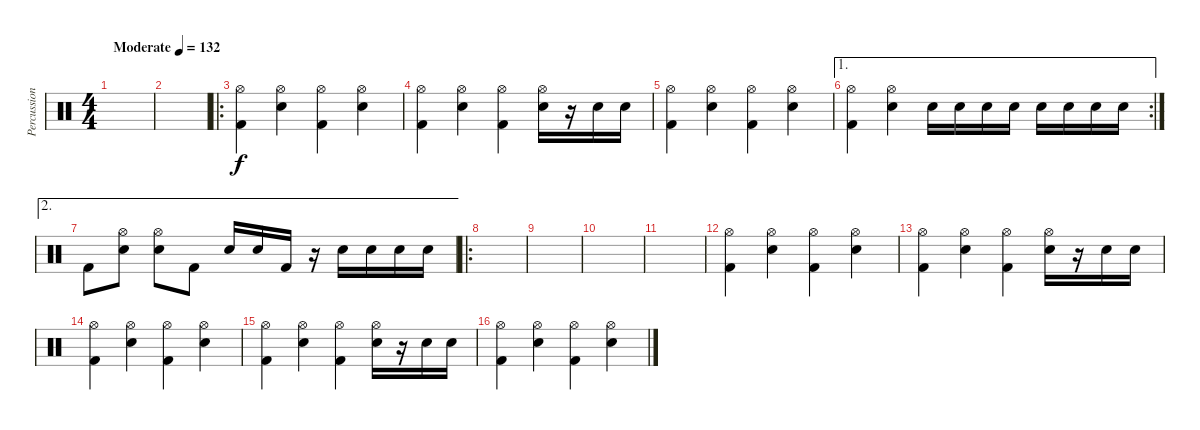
\track ("Percussion" "Percussion") {instrument percussion}
\staff {score}
\articulation defaults
\ts (4 4)
\tempo (132 "Moderate")
\clef neutral
\ks c
|
|
\ro
("Kick (hit) 2" "Hi-Hat (open)").4 ("Hi-Hat (open)" "Snare (hit) 2").4 ("Kick (hit) 2" "Hi-Hat (open)").4 ("Hi-Hat (open)" "Snare (hit) 2").4 |
("Kick (hit) 2" "Hi-Hat (open)").4 ("Hi-Hat (open)" "Snare (hit) 2").4 ("Kick (hit) 2" "Hi-Hat (open)").4 ("Electric Snare (hit)" "Hi-Hat (open)").16 r.16 "Electric Snare (hit)".16 "Electric Snare (hit)".16 |
("Kick (hit) 2" "Hi-Hat (open)").4 ("Hi-Hat (open)" "Snare (hit) 2").4 ("Kick (hit) 2" "Hi-Hat (open)").4 ("Hi-Hat (open)" "Snare (hit) 2").4 |
\ae 1
\rc 2
("Kick (hit) 2" "Hi-Hat (open)").4 ("Hi-Hat (open)" "Snare (hit) 2").4 "Electric Snare (hit)".16 "Electric Snare (hit)".16 "Electric Snare (hit)".16 "Electric Snare (hit)".16 "Electric Snare (hit)".16 "Electric Snare (hit)".16 "Electric Snare (hit)".16 "Electric Snare (hit)".16 |
\ae 2 "Kick (hit) 2".8
("Snare (hit) 2" "Hi-Hat (open)").8 ("Snare (hit) 2" "Hi-Hat (open)").8 "Kick (hit) 2".8 "Snare (hit) 2".16 "Snare (hit) 2".16 "Kick (hit) 2".16 r.16 "Snare (hit) 2".16 "Snare (hit) 2".16 "Snare (hit) 2".16 "Snare (hit) 2".16 |
\ro
|
|
|
|
("Kick (hit) 2" "Hi-Hat (open)").4 ("Hi-Hat (open)" "Snare (hit) 2").4 ("Kick (hit) 2" "Hi-Hat (open)").4 ("Hi-Hat (open)" "Snare (hit) 2").4 |
("Kick (hit) 2" "Hi-Hat (open)").4 ("Hi-Hat (open)" "Snare (hit) 2").4 ("Kick (hit) 2" "Hi-Hat (open)").4 ("Electric Snare (hit)" "Hi-Hat (open)").16 r.16 "Electric Snare (hit)".16 "Electric Snare (hit)".16 |
("Kick (hit) 2" "Hi-Hat (open)").4 ("Hi-Hat (open)" "Snare (hit) 2").4 ("Kick (hit) 2" "Hi-Hat (open)").4 ("Hi-Hat (open)" "Snare (hit) 2").4 |
("Kick (hit) 2" "Hi-Hat (open)").4 ("Hi-Hat (open)" "Snare (hit) 2").4 ("Kick (hit) 2" "Hi-Hat (open)").4 ("Electric Snare (hit)" "Hi-Hat (open)").16 r.16 "Electric Snare (hit)".16 "Electric Snare (hit)".16 |
("Kick (hit) 2" "Hi-Hat (open)").4 ("Hi-Hat (open)" "Snare (hit) 2").4 ("Kick (hit) 2" "Hi-Hat (open)").4 ("Hi-Hat (open)" "Snare (hit) 2").4
